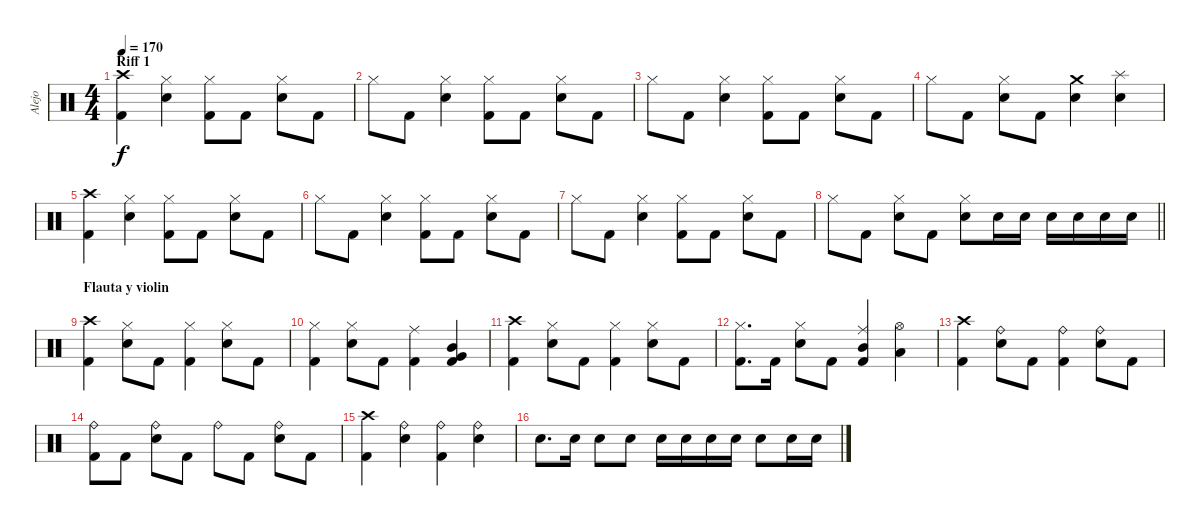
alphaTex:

\track ("Alejo" "Alejo") {instrument percussion}
\staff {score}
\articulation defaults
\ts (4 4)
\section ("" "Riff 1")
\tempo 170
\clef neutral
\ks c
("Crash high (hit)" "Kick (hit) 2").4{dy f} ("Snare (hit) 2" "Hi-Hat (closed)").4 ("Kick (hit) 2" "Hi-Hat (closed)").8 "Kick (hit) 2".8 ("Snare (hit) 2" "Hi-Hat (closed)").8 "Kick (hit) 2".8 |
"Hi-Hat (closed)".8 "Kick (hit) 2".8 ("Snare (hit) 2" "Hi-Hat (closed)").4 ("Kick (hit) 2" "Hi-Hat (closed)").8 "Kick (hit) 2".8 ("Snare (hit) 2" "Hi-Hat (closed)").8 "Kick (hit) 2".8 |
"Hi-Hat (closed)".8 "Kick (hit) 2".8 ("Snare (hit) 2" "Hi-Hat (closed)").4 ("Kick (hit) 2" "Hi-Hat (closed)").8 "Kick (hit) 2".8 ("Snare (hit) 2" "Hi-Hat (closed)").8 "Kick (hit) 2".8 |
"Hi-Hat (closed)".8 "Kick (hit) 2".8 ("Snare (hit) 2" "Hi-Hat (closed)").8 "Kick (hit) 2".8 ("Snare (hit) 2" "Crash medium (hit)").4 ("Snare (hit) 2" "Splash (hit)").4 |
("Crash high (hit)" "Kick (hit) 2").4 ("Snare (hit) 2" "Hi-Hat (closed)").4 ("Kick (hit) 2" "Hi-Hat (closed)").8 "Kick (hit) 2".8 ("Snare (hit) 2" "Hi-Hat (closed)").8 "Kick (hit) 2".8 |
"Hi-Hat (closed)".8 "Kick (hit) 2".8 ("Snare (hit) 2" "Hi-Hat (closed)").4 ("Kick (hit) 2" "Hi-Hat (closed)").8 "Kick (hit) 2".8 ("Snare (hit) 2" "Hi-Hat (closed)").8 "Kick (hit) 2".8 |
"Hi-Hat (closed)".8 "Kick (hit) 2".8 ("Snare (hit) 2" "Hi-Hat (closed)").4 ("Kick (hit) 2" "Hi-Hat (closed)").8 "Kick (hit) 2".8 ("Snare (hit) 2" "Hi-Hat (closed)").8 "Kick (hit) 2".8 |
\barLineRight lightlight "Hi-Hat (closed)".8 "Kick (hit) 2".8
("Snare (hit) 2" "Hi-Hat (closed)").8 "Kick (hit) 2".8 ("Snare (hit) 2" "Hi-Hat (closed)").8 "Snare (hit) 2".16 "Snare (hit) 2".16 "Snare (hit) 2".16 "Snare (hit) 2".16 "Snare (hit) 2".16 "Snare (hit) 2".16 |
\section ("" "Flauta y violin")
("Crash high (hit)" "Kick (hit) 2").4 ("Snare (hit) 2" "Hi-Hat (closed)").8 "Kick (hit) 2".8 ("Kick (hit) 2" "Hi-Hat (closed)").4 ("Snare (hit) 2" "Hi-Hat (closed)").8 "Kick (hit) 2".8 |
("Kick (hit) 2" "Hi-Hat (closed)").4 ("Snare (hit) 2" "Hi-Hat (closed)").8 "Kick (hit) 2".8 ("Kick (hit) 2" "Ride (middle)").4 ("Mid Tom (hit)" "Very Low Tom (hit)" "Kick (hit) 2").4 |
("Crash high (hit)" "Kick (hit) 2").4 ("Snare (hit) 2" "Hi-Hat (closed)").8 "Kick (hit) 2".8 ("Kick (hit) 2" "Hi-Hat (closed)").4 ("Snare (hit) 2" "Hi-Hat (closed)").8 "Kick (hit) 2".8 |
("Kick (hit) 2" "Hi-Hat (closed)").8{d} "Kick (hit) 2".16 ("Snare (hit) 2" "Hi-Hat (closed)").8 "Kick (hit) 2".8 ("Kick (hit) 2" "Ride (middle)" "Mid Tom (hit)").4 ("Hi-Hat (open)" "Low Tom (hit)").4 |
("Crash high (hit)" "Kick (hit) 2").4 ("Snare (hit) 2" "Ride (bell)").8 "Kick (hit) 2".8 ("Kick (hit) 2" "Ride (bell)").4 ("Snare (hit) 2" "Ride (bell)").8 "Kick (hit) 2".8 |
("Kick (hit) 2" "Ride (bell)").8 "Kick (hit) 2".8 ("Ride (bell)" "Snare (hit) 2").8 "Kick (hit) 2".8 "Ride (bell)".8 "Kick (hit) 2".8 ("Snare (hit) 2" "Ride (bell)").8 "Kick (hit) 2".8 |
("Crash high (hit)" "Kick (hit) 2").4 ("Snare (hit) 2" "Ride (bell)").4 ("Kick (hit) 2" "Ride (bell)").4 ("Snare (hit) 2" "Ride (bell)").4 |
"Snare (hit) 2".8{d} "Snare (hit) 2".16 "Snare (hit) 2".8 "Snare (hit) 2".8 "Snare (hit) 2".16 "Snare (hit) 2".16 "Snare (hit) 2".16 "Snare (hit) 2".16 "Snare (hit) 2".8 "Snare (hit) 2".16 "Snare (hit) 2".16
